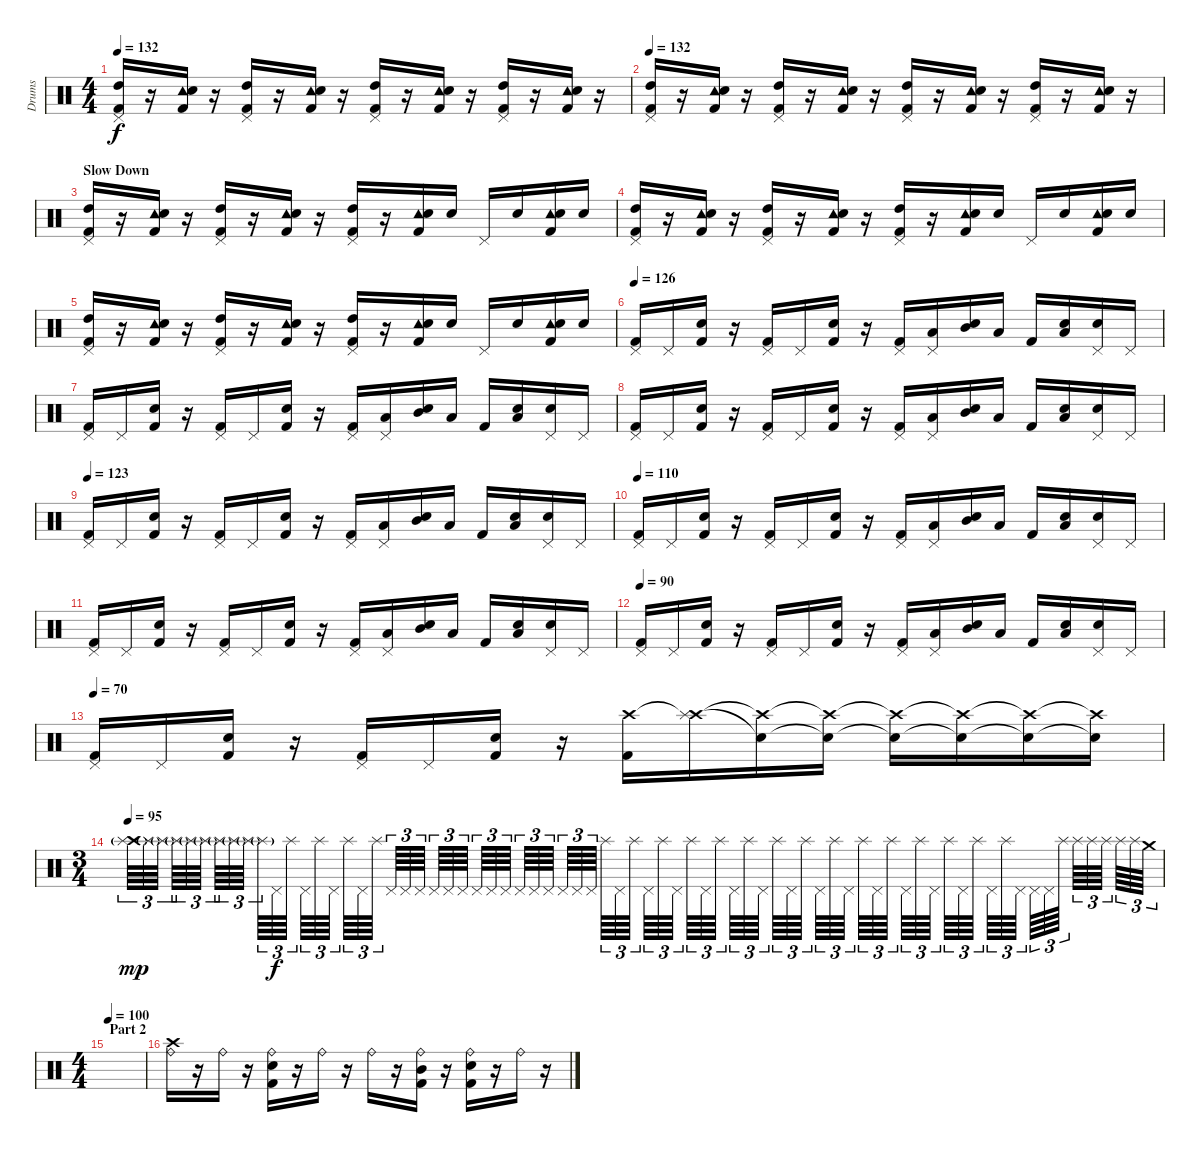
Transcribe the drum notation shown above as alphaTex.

\track ("Drums" "Drums") {instrument percussion}
\staff {score}
\articulation defaults
\ts (4 4)
\tempo 132
\clef neutral
\ks c
("Pedal Hi-Hat (hit)" "Kick (hit) 2" "High Tom (hit)").16{dy f} r.16 ("Tambourine (hit)" "Kick (hit) 2" "Snare (hit) 2").16 r.16 ("Pedal Hi-Hat (hit)" "Kick (hit) 2" "High Tom (hit)").16 r.16 ("Tambourine (hit)" "Kick (hit) 2" "Snare (hit) 2").16 r.16 ("Pedal Hi-Hat (hit)" "Kick (hit) 2" "High Tom (hit)").16 r.16 ("Tambourine (hit)" "Kick (hit) 2" "Snare (hit) 2").16 r.16 ("Pedal Hi-Hat (hit)" "Kick (hit) 2" "High Tom (hit)").16 r.16 ("Tambourine (hit)" "Kick (hit) 2" "Snare (hit) 2").16 r.16 |
\tempo 132
("Pedal Hi-Hat (hit)" "Kick (hit) 2" "High Tom (hit)").16 r.16 ("Tambourine (hit)" "Kick (hit) 2" "Snare (hit) 2").16 r.16 ("Pedal Hi-Hat (hit)" "Kick (hit) 2" "High Tom (hit)").16 r.16 ("Tambourine (hit)" "Kick (hit) 2" "Snare (hit) 2").16 r.16 ("Pedal Hi-Hat (hit)" "Kick (hit) 2" "High Tom (hit)").16 r.16 ("Tambourine (hit)" "Kick (hit) 2" "Snare (hit) 2").16 r.16 ("Pedal Hi-Hat (hit)" "Kick (hit) 2" "High Tom (hit)").16 r.16 ("Tambourine (hit)" "Kick (hit) 2" "Snare (hit) 2").16 r.16 |
\section ("" "Slow Down")
("Pedal Hi-Hat (hit)" "Kick (hit) 2" "High Tom (hit)").16 r.16 ("Tambourine (hit)" "Kick (hit) 2" "Snare (hit) 2").16 r.16 ("Pedal Hi-Hat (hit)" "Kick (hit) 2" "High Tom (hit)").16 r.16 ("Tambourine (hit)" "Kick (hit) 2" "Snare (hit) 2").16 r.16 ("Pedal Hi-Hat (hit)" "Kick (hit) 2" "High Tom (hit)").16 r.16 ("Tambourine (hit)" "Kick (hit) 2" "Snare (hit) 2").16 "Snare (hit) 2".16 "Pedal Hi-Hat (hit)".16 "Snare (hit) 2".16 ("Tambourine (hit)" "Kick (hit) 2" "Snare (hit) 2").16 "Snare (hit) 2".16 |
("Pedal Hi-Hat (hit)" "Kick (hit) 2" "High Tom (hit)").16 r.16 ("Tambourine (hit)" "Kick (hit) 2" "Snare (hit) 2").16 r.16 ("Pedal Hi-Hat (hit)" "Kick (hit) 2" "High Tom (hit)").16 r.16 ("Tambourine (hit)" "Kick (hit) 2" "Snare (hit) 2").16 r.16 ("Pedal Hi-Hat (hit)" "Kick (hit) 2" "High Tom (hit)").16 r.16 ("Tambourine (hit)" "Kick (hit) 2" "Snare (hit) 2").16 "Snare (hit) 2".16 "Pedal Hi-Hat (hit)".16 "Snare (hit) 2".16 ("Tambourine (hit)" "Kick (hit) 2" "Snare (hit) 2").16 "Snare (hit) 2".16 |
("Pedal Hi-Hat (hit)" "Kick (hit) 2" "High Tom (hit)").16 r.16 ("Tambourine (hit)" "Kick (hit) 2" "Snare (hit) 2").16 r.16 ("Pedal Hi-Hat (hit)" "Kick (hit) 2" "High Tom (hit)").16 r.16 ("Tambourine (hit)" "Kick (hit) 2" "Snare (hit) 2").16 r.16 ("Pedal Hi-Hat (hit)" "Kick (hit) 2" "High Tom (hit)").16 r.16 ("Tambourine (hit)" "Kick (hit) 2" "Snare (hit) 2").16 "Snare (hit) 2".16 "Pedal Hi-Hat (hit)".16 "Snare (hit) 2".16 ("Tambourine (hit)" "Kick (hit) 2" "Snare (hit) 2").16 "Snare (hit) 2".16 |
\tempo 126
("Pedal Hi-Hat (hit)" "Kick (hit) 2").16 "Pedal Hi-Hat (hit)".16 ("Snare (hit) 2" "Kick (hit) 2").16 r.16 ("Pedal Hi-Hat (hit)" "Kick (hit) 2").16 "Pedal Hi-Hat (hit)".16 ("Snare (hit) 2" "Kick (hit) 2").16 r.16 ("Pedal Hi-Hat (hit)" "Kick (hit) 2").16 ("Pedal Hi-Hat (hit)" "Low Tom (hit)").16 ("Snare (hit) 2" "Mid Tom (hit)").16 "Low Tom (hit)".16 "Kick (hit) 2".16 ("Snare (hit) 2" "Low Tom (hit)").16 ("Pedal Hi-Hat (hit)" "Snare (hit) 2").16 "Pedal Hi-Hat (hit)".16 |
("Pedal Hi-Hat (hit)" "Kick (hit) 2").16 "Pedal Hi-Hat (hit)".16 ("Snare (hit) 2" "Kick (hit) 2").16 r.16 ("Pedal Hi-Hat (hit)" "Kick (hit) 2").16 "Pedal Hi-Hat (hit)".16 ("Snare (hit) 2" "Kick (hit) 2").16 r.16 ("Pedal Hi-Hat (hit)" "Kick (hit) 2").16 ("Pedal Hi-Hat (hit)" "Low Tom (hit)").16 ("Snare (hit) 2" "Mid Tom (hit)").16 "Low Tom (hit)".16 "Kick (hit) 2".16 ("Snare (hit) 2" "Low Tom (hit)").16 ("Pedal Hi-Hat (hit)" "Snare (hit) 2").16 "Pedal Hi-Hat (hit)".16 |
("Pedal Hi-Hat (hit)" "Kick (hit) 2").16 "Pedal Hi-Hat (hit)".16 ("Snare (hit) 2" "Kick (hit) 2").16 r.16 ("Pedal Hi-Hat (hit)" "Kick (hit) 2").16 "Pedal Hi-Hat (hit)".16 ("Snare (hit) 2" "Kick (hit) 2").16 r.16 ("Pedal Hi-Hat (hit)" "Kick (hit) 2").16 ("Pedal Hi-Hat (hit)" "Low Tom (hit)").16 ("Snare (hit) 2" "Mid Tom (hit)").16 "Low Tom (hit)".16 "Kick (hit) 2".16 ("Snare (hit) 2" "Low Tom (hit)").16 ("Pedal Hi-Hat (hit)" "Snare (hit) 2").16 "Pedal Hi-Hat (hit)".16 |
\tempo 123
("Pedal Hi-Hat (hit)" "Kick (hit) 2").16 "Pedal Hi-Hat (hit)".16 ("Snare (hit) 2" "Kick (hit) 2").16 r.16 ("Pedal Hi-Hat (hit)" "Kick (hit) 2").16 "Pedal Hi-Hat (hit)".16 ("Snare (hit) 2" "Kick (hit) 2").16 r.16 ("Pedal Hi-Hat (hit)" "Kick (hit) 2").16 ("Pedal Hi-Hat (hit)" "Low Tom (hit)").16 ("Snare (hit) 2" "Mid Tom (hit)").16 "Low Tom (hit)".16 "Kick (hit) 2".16 ("Snare (hit) 2" "Low Tom (hit)").16 ("Pedal Hi-Hat (hit)" "Snare (hit) 2").16 "Pedal Hi-Hat (hit)".16 |
\tempo 110
("Pedal Hi-Hat (hit)" "Kick (hit) 2").16 "Pedal Hi-Hat (hit)".16 ("Snare (hit) 2" "Kick (hit) 2").16 r.16 ("Pedal Hi-Hat (hit)" "Kick (hit) 2").16 "Pedal Hi-Hat (hit)".16 ("Snare (hit) 2" "Kick (hit) 2").16 r.16 ("Pedal Hi-Hat (hit)" "Kick (hit) 2").16 ("Pedal Hi-Hat (hit)" "Low Tom (hit)").16 ("Snare (hit) 2" "Mid Tom (hit)").16 "Low Tom (hit)".16 "Kick (hit) 2".16 ("Snare (hit) 2" "Low Tom (hit)").16 ("Pedal Hi-Hat (hit)" "Snare (hit) 2").16 "Pedal Hi-Hat (hit)".16 |
("Pedal Hi-Hat (hit)" "Kick (hit) 2").16 "Pedal Hi-Hat (hit)".16 ("Snare (hit) 2" "Kick (hit) 2").16 r.16 ("Pedal Hi-Hat (hit)" "Kick (hit) 2").16 "Pedal Hi-Hat (hit)".16 ("Snare (hit) 2" "Kick (hit) 2").16 r.16 ("Pedal Hi-Hat (hit)" "Kick (hit) 2").16 ("Pedal Hi-Hat (hit)" "Low Tom (hit)").16 ("Snare (hit) 2" "Mid Tom (hit)").16 "Low Tom (hit)".16 "Kick (hit) 2".16 ("Snare (hit) 2" "Low Tom (hit)").16 ("Pedal Hi-Hat (hit)" "Snare (hit) 2").16 "Pedal Hi-Hat (hit)".16 |
\tempo 90
("Pedal Hi-Hat (hit)" "Kick (hit) 2").16 "Pedal Hi-Hat (hit)".16 ("Snare (hit) 2" "Kick (hit) 2").16 r.16 ("Pedal Hi-Hat (hit)" "Kick (hit) 2").16 "Pedal Hi-Hat (hit)".16 ("Snare (hit) 2" "Kick (hit) 2").16 r.16 ("Pedal Hi-Hat (hit)" "Kick (hit) 2").16 ("Pedal Hi-Hat (hit)" "Low Tom (hit)").16 ("Snare (hit) 2" "Mid Tom (hit)").16 "Low Tom (hit)".16 "Kick (hit) 2".16 ("Snare (hit) 2" "Low Tom (hit)").16 ("Pedal Hi-Hat (hit)" "Snare (hit) 2").16 "Pedal Hi-Hat (hit)".16 |
\tempo 70
("Pedal Hi-Hat (hit)" "Kick (hit) 2").16 "Pedal Hi-Hat (hit)".16 ("Snare (hit) 2" "Kick (hit) 2").16 r.16 ("Pedal Hi-Hat (hit)" "Kick (hit) 2").16 "Pedal Hi-Hat (hit)".16 ("Snare (hit) 2" "Kick (hit) 2").16 r.16 ("Crash high (hit)" "Kick (hit) 2").16 ("Crash high (hit)"{t} "Splash (hit)").16 ("Crash high (hit)"{t} "Snare (hit)"{t}).16 ("Crash high (hit)"{t} "Snare (hit)"{t}).16 ("Crash high (hit)"{t} "Snare (hit)"{t}).16 ("Crash high (hit)"{t} "Snare (hit)"{t}).16 ("Crash high (hit)"{t} "Snare (hit)"{t}).16 ("Crash high (hit)"{t} "Snare (hit)"{t}).16 |
\ts (3 4)
\tempo 95
("Crash high (hit)" "Splash (hit)"{g}).64{tu (3 2) dy mp} "Splash (hit)"{g}.64{tu (3 2)} "Splash (hit)"{g}.64{tu (3 2)} "Splash (hit)"{g}.64{tu (3 2)} "Splash (hit)"{g}.64{tu (3 2)} "Splash (hit)"{g}.64{tu (3 2)} "Splash (hit)"{g}.64{tu (3 2)} "Splash (hit)"{g}.64{tu (3 2)} "Splash (hit)"{g}.64{tu (3 2)} "Splash (hit)"{g}.64{tu (3 2)} "Pedal Hi-Hat (hit)".64{tu (3 2) dy f} "Splash (hit)".64{tu (3 2)} "Pedal Hi-Hat (hit)".64{tu (3 2)} "Splash (hit)".64{tu (3 2)} "Pedal Hi-Hat (hit)".64{tu (3 2)} "Splash (hit)".64{tu (3 2)} "Pedal Hi-Hat (hit)".64{tu (3 2)} "Splash (hit)".64{tu (3 2)} "Pedal Hi-Hat (hit)".64{tu (3 2)} "Pedal Hi-Hat (hit)".64{tu (3 2)} "Pedal Hi-Hat (hit)".64{tu (3 2)} "Pedal Hi-Hat (hit)".64{tu (3 2)} "Pedal Hi-Hat (hit)".64{tu (3 2)} "Pedal Hi-Hat (hit)".64{tu (3 2)} "Pedal Hi-Hat (hit)".64{tu (3 2)} "Pedal Hi-Hat (hit)".64{tu (3 2)} "Pedal Hi-Hat (hit)".64{tu (3 2)} "Pedal Hi-Hat (hit)".64{tu (3 2)} "Pedal Hi-Hat (hit)".64{tu (3 2)} "Pedal Hi-Hat (hit)".64{tu (3 2)} "Pedal Hi-Hat (hit)".64{tu (3 2)} "Pedal Hi-Hat (hit)".64{tu (3 2)} "Pedal Hi-Hat (hit)".64{tu (3 2)} "Splash (hit)".64{tu (3 2)} "Pedal Hi-Hat (hit)".64{tu (3 2)} "Splash (hit)".64{tu (3 2)} "Pedal Hi-Hat (hit)".64{tu (3 2)} "Splash (hit)".64{tu (3 2)} "Pedal Hi-Hat (hit)".64{tu (3 2)} "Splash (hit)".64{tu (3 2)} "Pedal Hi-Hat (hit)".64{tu (3 2)} "Splash (hit)".64{tu (3 2)} "Pedal Hi-Hat (hit)".64{tu (3 2)} "Splash (hit)".64{tu (3 2)} "Pedal Hi-Hat (hit)".64{tu (3 2)} "Splash (hit)".64{tu (3 2)} "Pedal Hi-Hat (hit)".64{tu (3 2)} "Splash (hit)".64{tu (3 2)} "Pedal Hi-Hat (hit)".64{tu (3 2)} "Splash (hit)".64{tu (3 2)} "Pedal Hi-Hat (hit)".64{tu (3 2)} "Splash (hit)".64{tu (3 2)} "Pedal Hi-Hat (hit)".64{tu (3 2)} "Splash (hit)".64{tu (3 2)} "Pedal Hi-Hat (hit)".64{tu (3 2)} "Splash (hit)".64{tu (3 2)} "Pedal Hi-Hat (hit)".64{tu (3 2)} "Splash (hit)".64{tu (3 2)} "Pedal Hi-Hat (hit)".64{tu (3 2)} "Splash (hit)".64{tu (3 2)} "Pedal Hi-Hat (hit)".64{tu (3 2)} "Splash (hit)".64{tu (3 2)} "Pedal Hi-Hat (hit)".64{tu (3 2)} "Pedal Hi-Hat (hit)".64{tu (3 2)} "Pedal Hi-Hat (hit)".64{tu (3 2)} "Splash (hit)".64{tu (3 2)} "Splash (hit)".64{tu (3 2)} "Splash (hit)".64{tu (3 2)} "Splash (hit)".64{tu (3 2)} "Splash (hit)".64{tu (3 2)} "Splash (hit)".64{tu (3 2)} "Crash medium (hit)".64{tu (3 2)} |
\ts (4 4)
\section ("" "Part 2")
\tempo 100
|
("Crash high (hit)" "Ride (bell)").16 r.16 "Ride (bell)".16 r.16 ("Ride (bell)" "Snare (hit) 2" "Kick (hit) 2").16 r.16 "Ride (bell)".16 r.16 "Ride (bell)".16 r.16 ("Ride (bell)" "Mid Tom (hit)" "Kick (hit) 2").16 r.16 ("Ride (bell)" "Snare (hit) 2" "Kick (hit) 2").16 r.16 "Ride (bell)".16 r.16
